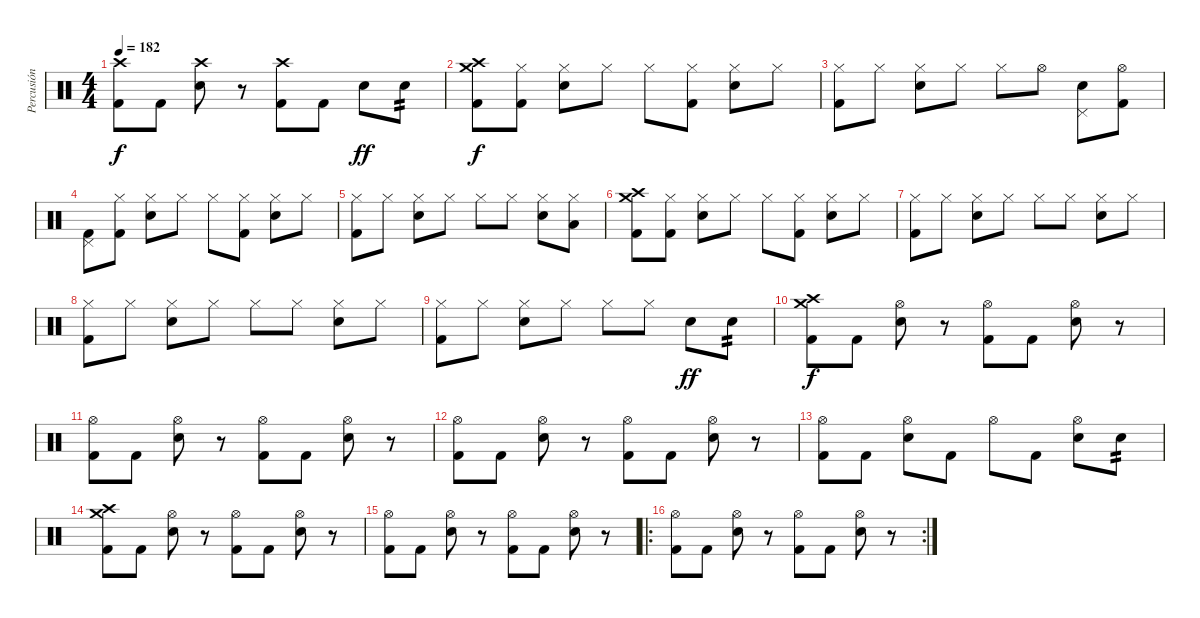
\track ("Percusión Kuliá" "Percusión ") {instrument percussion}
\staff {score}
\articulation defaults
\ts (4 4)
\tempo 182
\clef neutral
\ks c
("Crash high (hit)" "Kick (hit) 2").8{dy f} "Kick (hit) 2".8 ("Crash high (hit)" "Electric Snare (hit)").8 r.8 ("Crash high (hit)" "Kick (hit) 2").8 "Kick (hit) 2".8 "Electric Snare (hit)".8{dy ff} "Electric Snare (hit)".8{tp 2} |
("Crash high (hit)" "Crash medium (hit)" "Kick (hit) 2").8{dy f} ("Hi-Hat (closed)" "Kick (hit) 2").8 ("Hi-Hat (closed)" "Electric Snare (hit)").8 "Hi-Hat (closed)".8 "Hi-Hat (closed)".8 ("Hi-Hat (closed)" "Kick (hit) 2").8 ("Hi-Hat (closed)" "Electric Snare (hit)").8 "Hi-Hat (closed)".8 |
("Hi-Hat (closed)" "Kick (hit) 2").8 "Hi-Hat (closed)".8 ("Hi-Hat (closed)" "Electric Snare (hit)").8 "Hi-Hat (closed)".8 "Hi-Hat (closed)".8 "Hi-Hat (open)".8 ("Pedal Hi-Hat (hit)" "Electric Snare (hit)").8 ("Hi-Hat (open)" "Kick (hit) 2").8 |
("Pedal Hi-Hat (hit)" "Kick (hit) 2").8 ("Hi-Hat (closed)" "Kick (hit) 2").8 ("Hi-Hat (closed)" "Electric Snare (hit)").8 "Hi-Hat (closed)".8 "Hi-Hat (closed)".8 ("Hi-Hat (closed)" "Kick (hit) 2").8 ("Hi-Hat (closed)" "Electric Snare (hit)").8 "Hi-Hat (closed)".8 |
("Hi-Hat (closed)" "Kick (hit) 2").8 "Hi-Hat (closed)".8 ("Hi-Hat (closed)" "Electric Snare (hit)").8 "Hi-Hat (closed)".8 "Hi-Hat (closed)".8 "Hi-Hat (closed)".8 ("Hi-Hat (closed)" "Electric Snare (hit)").8 ("Hi-Hat (closed)" "Low Tom (hit)").8 |
("Crash high (hit)" "Crash medium (hit)" "Kick (hit) 2").8 ("Hi-Hat (closed)" "Kick (hit) 2").8 ("Hi-Hat (closed)" "Electric Snare (hit)").8 "Hi-Hat (closed)".8 "Hi-Hat (closed)".8 ("Hi-Hat (closed)" "Kick (hit) 2").8 ("Hi-Hat (closed)" "Electric Snare (hit)").8 "Hi-Hat (closed)".8 |
("Hi-Hat (closed)" "Kick (hit) 2").8 "Hi-Hat (closed)".8 ("Hi-Hat (closed)" "Electric Snare (hit)").8 "Hi-Hat (closed)".8 "Hi-Hat (closed)".8 "Hi-Hat (closed)".8 ("Hi-Hat (closed)" "Electric Snare (hit)").8 "Hi-Hat (closed)".8 |
("Hi-Hat (closed)" "Kick (hit) 2").8 "Hi-Hat (closed)".8 ("Hi-Hat (closed)" "Electric Snare (hit)").8 "Hi-Hat (closed)".8 "Hi-Hat (closed)".8 "Hi-Hat (closed)".8 ("Hi-Hat (closed)" "Electric Snare (hit)").8 "Hi-Hat (closed)".8 |
("Hi-Hat (closed)" "Kick (hit) 2").8 "Hi-Hat (closed)".8 ("Hi-Hat (closed)" "Electric Snare (hit)").8 "Hi-Hat (closed)".8 "Hi-Hat (closed)".8 "Hi-Hat (closed)".8 "Electric Snare (hit)".8{dy ff} "Electric Snare (hit)".8{tp 2} |
("Crash high (hit)" "Crash medium (hit)" "Kick (hit) 2").8{dy f} "Kick (hit) 2".8 ("Hi-Hat (open)" "Electric Snare (hit)").8 r.8 ("Hi-Hat (open)" "Kick (hit) 2").8 "Kick (hit) 2".8 ("Hi-Hat (open)" "Electric Snare (hit)").8 r.8 |
("Hi-Hat (open)" "Kick (hit) 2").8 "Kick (hit) 2".8 ("Hi-Hat (open)" "Electric Snare (hit)").8 r.8 ("Hi-Hat (open)" "Kick (hit) 2").8 "Kick (hit) 2".8 ("Hi-Hat (open)" "Electric Snare (hit)").8 r.8 |
("Hi-Hat (open)" "Kick (hit) 2").8 "Kick (hit) 2".8 ("Hi-Hat (open)" "Electric Snare (hit)").8 r.8 ("Hi-Hat (open)" "Kick (hit) 2").8 "Kick (hit) 2".8 ("Hi-Hat (open)" "Electric Snare (hit)").8 r.8 |
("Hi-Hat (open)" "Kick (hit) 2").8 "Kick (hit) 2".8 ("Hi-Hat (open)" "Electric Snare (hit)").8 "Kick (hit) 2".8 "Hi-Hat (open)".8 "Kick (hit) 2".8 ("Hi-Hat (open)" "Electric Snare (hit)").8 "Electric Snare (hit)".8{tp 2} |
("Crash high (hit)" "Crash medium (hit)" "Kick (hit) 2").8 "Kick (hit) 2".8 ("Hi-Hat (open)" "Electric Snare (hit)").8 r.8 ("Hi-Hat (open)" "Kick (hit) 2").8 "Kick (hit) 2".8 ("Hi-Hat (open)" "Electric Snare (hit)").8 r.8 |
("Hi-Hat (open)" "Kick (hit) 2").8 "Kick (hit) 2".8 ("Hi-Hat (open)" "Electric Snare (hit)").8 r.8 ("Hi-Hat (open)" "Kick (hit) 2").8 "Kick (hit) 2".8 ("Hi-Hat (open)" "Electric Snare (hit)").8 r.8 |
\ro
\rc 2
("Hi-Hat (open)" "Kick (hit) 2").8 "Kick (hit) 2".8 ("Hi-Hat (open)" "Electric Snare (hit)").8 r.8 ("Hi-Hat (open)" "Kick (hit) 2").8 "Kick (hit) 2".8 ("Hi-Hat (open)" "Electric Snare (hit)").8 r.8
